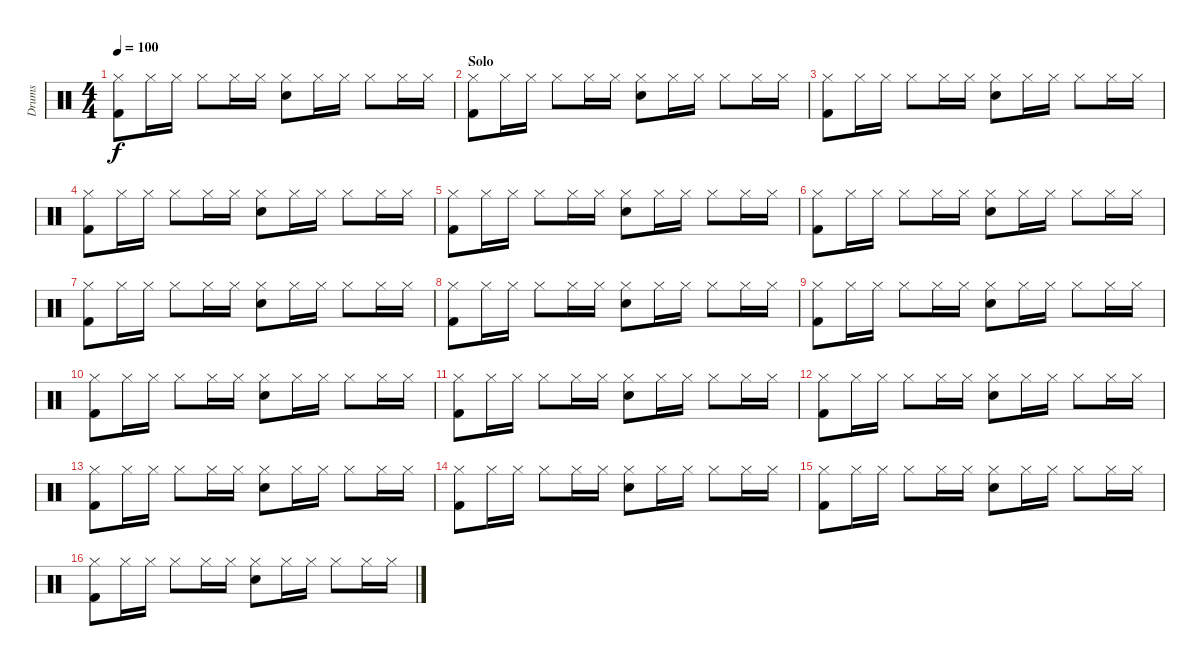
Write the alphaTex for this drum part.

\track ("Drums" "Drums") {instrument percussion}
\staff {score}
\articulation defaults
\ts (4 4)
\tempo 100
\clef neutral
\ks c
("Hi-Hat (closed)" "Kick (hit) 2").8{dy f} "Hi-Hat (closed)".16 "Hi-Hat (closed)".16 "Hi-Hat (closed)".8 "Hi-Hat (closed)".16 "Hi-Hat (closed)".16 ("Hi-Hat (closed)" "Snare (hit) 2").8 "Hi-Hat (closed)".16 "Hi-Hat (closed)".16 "Hi-Hat (closed)".8 "Hi-Hat (closed)".16 "Hi-Hat (closed)".16 |
\section ("" "Solo")
("Hi-Hat (closed)" "Kick (hit) 2").8 "Hi-Hat (closed)".16 "Hi-Hat (closed)".16 "Hi-Hat (closed)".8 "Hi-Hat (closed)".16 "Hi-Hat (closed)".16 ("Hi-Hat (closed)" "Snare (hit) 2").8 "Hi-Hat (closed)".16 "Hi-Hat (closed)".16 "Hi-Hat (closed)".8 "Hi-Hat (closed)".16 "Hi-Hat (closed)".16 |
("Hi-Hat (closed)" "Kick (hit) 2").8 "Hi-Hat (closed)".16 "Hi-Hat (closed)".16 "Hi-Hat (closed)".8 "Hi-Hat (closed)".16 "Hi-Hat (closed)".16 ("Hi-Hat (closed)" "Snare (hit) 2").8 "Hi-Hat (closed)".16 "Hi-Hat (closed)".16 "Hi-Hat (closed)".8 "Hi-Hat (closed)".16 "Hi-Hat (closed)".16 |
("Hi-Hat (closed)" "Kick (hit) 2").8 "Hi-Hat (closed)".16 "Hi-Hat (closed)".16 "Hi-Hat (closed)".8 "Hi-Hat (closed)".16 "Hi-Hat (closed)".16 ("Hi-Hat (closed)" "Snare (hit) 2").8 "Hi-Hat (closed)".16 "Hi-Hat (closed)".16 "Hi-Hat (closed)".8 "Hi-Hat (closed)".16 "Hi-Hat (closed)".16 |
("Hi-Hat (closed)" "Kick (hit) 2").8 "Hi-Hat (closed)".16 "Hi-Hat (closed)".16 "Hi-Hat (closed)".8 "Hi-Hat (closed)".16 "Hi-Hat (closed)".16 ("Hi-Hat (closed)" "Snare (hit) 2").8 "Hi-Hat (closed)".16 "Hi-Hat (closed)".16 "Hi-Hat (closed)".8 "Hi-Hat (closed)".16 "Hi-Hat (closed)".16 |
("Hi-Hat (closed)" "Kick (hit) 2").8 "Hi-Hat (closed)".16 "Hi-Hat (closed)".16 "Hi-Hat (closed)".8 "Hi-Hat (closed)".16 "Hi-Hat (closed)".16 ("Hi-Hat (closed)" "Snare (hit) 2").8 "Hi-Hat (closed)".16 "Hi-Hat (closed)".16 "Hi-Hat (closed)".8 "Hi-Hat (closed)".16 "Hi-Hat (closed)".16 |
("Hi-Hat (closed)" "Kick (hit) 2").8 "Hi-Hat (closed)".16 "Hi-Hat (closed)".16 "Hi-Hat (closed)".8 "Hi-Hat (closed)".16 "Hi-Hat (closed)".16 ("Hi-Hat (closed)" "Snare (hit) 2").8 "Hi-Hat (closed)".16 "Hi-Hat (closed)".16 "Hi-Hat (closed)".8 "Hi-Hat (closed)".16 "Hi-Hat (closed)".16 |
("Hi-Hat (closed)" "Kick (hit) 2").8 "Hi-Hat (closed)".16 "Hi-Hat (closed)".16 "Hi-Hat (closed)".8 "Hi-Hat (closed)".16 "Hi-Hat (closed)".16 ("Hi-Hat (closed)" "Snare (hit) 2").8 "Hi-Hat (closed)".16 "Hi-Hat (closed)".16 "Hi-Hat (closed)".8 "Hi-Hat (closed)".16 "Hi-Hat (closed)".16 |
("Hi-Hat (closed)" "Kick (hit) 2").8 "Hi-Hat (closed)".16 "Hi-Hat (closed)".16 "Hi-Hat (closed)".8 "Hi-Hat (closed)".16 "Hi-Hat (closed)".16 ("Hi-Hat (closed)" "Snare (hit) 2").8 "Hi-Hat (closed)".16 "Hi-Hat (closed)".16 "Hi-Hat (closed)".8 "Hi-Hat (closed)".16 "Hi-Hat (closed)".16 |
("Hi-Hat (closed)" "Kick (hit) 2").8 "Hi-Hat (closed)".16 "Hi-Hat (closed)".16 "Hi-Hat (closed)".8 "Hi-Hat (closed)".16 "Hi-Hat (closed)".16 ("Hi-Hat (closed)" "Snare (hit) 2").8 "Hi-Hat (closed)".16 "Hi-Hat (closed)".16 "Hi-Hat (closed)".8 "Hi-Hat (closed)".16 "Hi-Hat (closed)".16 |
("Hi-Hat (closed)" "Kick (hit) 2").8 "Hi-Hat (closed)".16 "Hi-Hat (closed)".16 "Hi-Hat (closed)".8 "Hi-Hat (closed)".16 "Hi-Hat (closed)".16 ("Hi-Hat (closed)" "Snare (hit) 2").8 "Hi-Hat (closed)".16 "Hi-Hat (closed)".16 "Hi-Hat (closed)".8 "Hi-Hat (closed)".16 "Hi-Hat (closed)".16 |
("Hi-Hat (closed)" "Kick (hit) 2").8 "Hi-Hat (closed)".16 "Hi-Hat (closed)".16 "Hi-Hat (closed)".8 "Hi-Hat (closed)".16 "Hi-Hat (closed)".16 ("Hi-Hat (closed)" "Snare (hit) 2").8 "Hi-Hat (closed)".16 "Hi-Hat (closed)".16 "Hi-Hat (closed)".8 "Hi-Hat (closed)".16 "Hi-Hat (closed)".16 |
("Hi-Hat (closed)" "Kick (hit) 2").8 "Hi-Hat (closed)".16 "Hi-Hat (closed)".16 "Hi-Hat (closed)".8 "Hi-Hat (closed)".16 "Hi-Hat (closed)".16 ("Hi-Hat (closed)" "Snare (hit) 2").8 "Hi-Hat (closed)".16 "Hi-Hat (closed)".16 "Hi-Hat (closed)".8 "Hi-Hat (closed)".16 "Hi-Hat (closed)".16 |
("Hi-Hat (closed)" "Kick (hit) 2").8 "Hi-Hat (closed)".16 "Hi-Hat (closed)".16 "Hi-Hat (closed)".8 "Hi-Hat (closed)".16 "Hi-Hat (closed)".16 ("Hi-Hat (closed)" "Snare (hit) 2").8 "Hi-Hat (closed)".16 "Hi-Hat (closed)".16 "Hi-Hat (closed)".8 "Hi-Hat (closed)".16 "Hi-Hat (closed)".16 |
("Hi-Hat (closed)" "Kick (hit) 2").8 "Hi-Hat (closed)".16 "Hi-Hat (closed)".16 "Hi-Hat (closed)".8 "Hi-Hat (closed)".16 "Hi-Hat (closed)".16 ("Hi-Hat (closed)" "Snare (hit) 2").8 "Hi-Hat (closed)".16 "Hi-Hat (closed)".16 "Hi-Hat (closed)".8 "Hi-Hat (closed)".16 "Hi-Hat (closed)".16 |
("Hi-Hat (closed)" "Kick (hit) 2").8 "Hi-Hat (closed)".16 "Hi-Hat (closed)".16 "Hi-Hat (closed)".8 "Hi-Hat (closed)".16 "Hi-Hat (closed)".16 ("Hi-Hat (closed)" "Snare (hit) 2").8 "Hi-Hat (closed)".16 "Hi-Hat (closed)".16 "Hi-Hat (closed)".8 "Hi-Hat (closed)".16 "Hi-Hat (closed)".16
